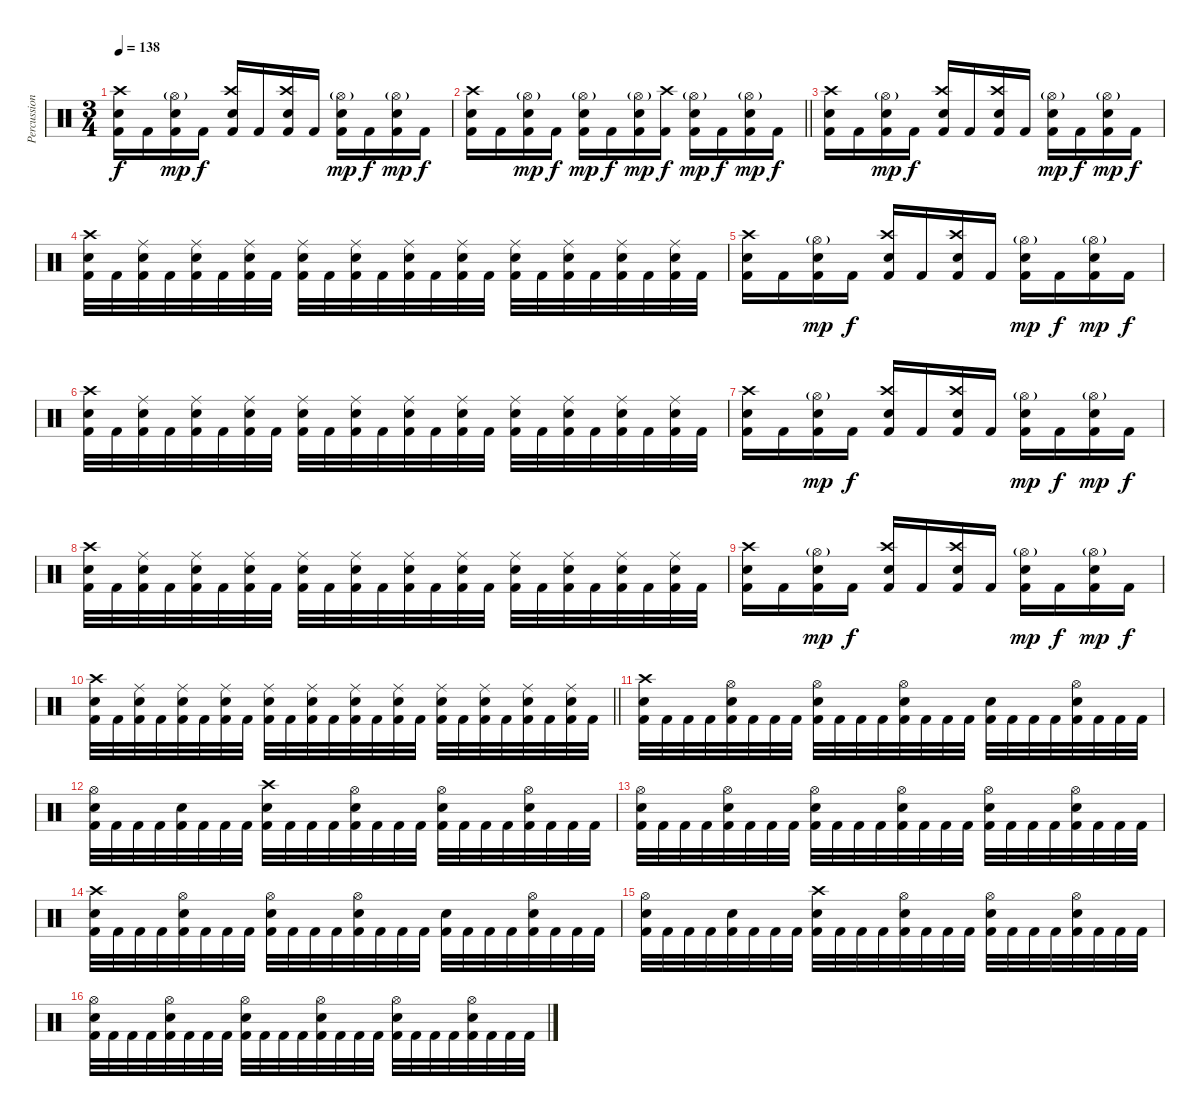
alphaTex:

\track ("Percussion" "Percussion") {instrument percussion}
\staff {score}
\articulation defaults
\ts (3 4)
\section ("" "")
\tempo 138
\clef neutral
\ks c
("Kick (hit) 2" "Crash high (hit)" "Electric Snare (hit)").16{dy f} "Kick (hit) 2".16 ("Kick (hit) 2" "Hi-Hat (open)"{g} "Electric Snare (hit)").16{dy mp} "Kick (hit) 2".16{dy f} ("Kick (hit) 2" "Crash high (hit)" "Electric Snare (hit)").16 "Kick (hit) 2".16 ("Kick (hit) 2" "Crash high (hit)" "Electric Snare (hit)").16 "Kick (hit) 2".16 ("Kick (hit) 2" "Hi-Hat (open)"{g} "Electric Snare (hit)").16{dy mp} "Kick (hit) 2".16{dy f} ("Kick (hit) 2" "Hi-Hat (open)"{g} "Electric Snare (hit)").16{dy mp} "Kick (hit) 2".16{dy f} |
\barLineRight lightlight
("Kick (hit) 2" "Crash high (hit)" "Electric Snare (hit)").16 "Kick (hit) 2".16 ("Kick (hit) 2" "Hi-Hat (open)"{g} "Electric Snare (hit)").16{dy mp} "Kick (hit) 2".16{dy f} ("Kick (hit) 2" "Hi-Hat (open)"{g} "Electric Snare (hit)").16{dy mp} "Kick (hit) 2".16{dy f} ("Kick (hit) 2" "Hi-Hat (open)"{g} "Electric Snare (hit)").16{dy mp} ("Kick (hit) 2" "Crash high (hit)").16{dy f} ("Kick (hit) 2" "Hi-Hat (open)"{g} "Electric Snare (hit)").16{dy mp} "Kick (hit) 2".16{dy f} ("Kick (hit) 2" "Hi-Hat (open)"{g} "Electric Snare (hit)").16{dy mp} "Kick (hit) 2".16{dy f} |
\section ("" "")
("Kick (hit) 2" "Crash high (hit)" "Electric Snare (hit)").16 "Kick (hit) 2".16 ("Kick (hit) 2" "Hi-Hat (open)"{g} "Electric Snare (hit)").16{dy mp} "Kick (hit) 2".16{dy f} ("Kick (hit) 2" "Crash high (hit)" "Electric Snare (hit)").16 "Kick (hit) 2".16 ("Kick (hit) 2" "Crash high (hit)" "Electric Snare (hit)").16 "Kick (hit) 2".16 ("Kick (hit) 2" "Hi-Hat (open)"{g} "Electric Snare (hit)").16{dy mp} "Kick (hit) 2".16{dy f} ("Kick (hit) 2" "Hi-Hat (open)"{g} "Electric Snare (hit)").16{dy mp} "Kick (hit) 2".16{dy f} |
("Kick (hit) 2" "Electric Snare (hit)" "Crash high (hit)").32 "Kick (hit) 2".32 ("Kick (hit) 2" "Electric Snare (hit)" "Ride (middle)").32 "Kick (hit) 2".32 ("Kick (hit) 2" "Electric Snare (hit)" "Ride (middle)").32 "Kick (hit) 2".32 ("Kick (hit) 2" "Electric Snare (hit)" "Ride (middle)").32 "Kick (hit) 2".32 ("Kick (hit) 2" "Electric Snare (hit)" "Ride (middle)").32 "Kick (hit) 2".32 ("Kick (hit) 2" "Electric Snare (hit)" "Ride (middle)").32 "Kick (hit) 2".32 ("Kick (hit) 2" "Electric Snare (hit)" "Ride (middle)").32 "Kick (hit) 2".32 ("Kick (hit) 2" "Electric Snare (hit)" "Ride (middle)").32 "Kick (hit) 2".32 ("Kick (hit) 2" "Electric Snare (hit)" "Ride (middle)").32 "Kick (hit) 2".32 ("Kick (hit) 2" "Electric Snare (hit)" "Ride (middle)").32 "Kick (hit) 2".32 ("Kick (hit) 2" "Electric Snare (hit)" "Ride (middle)").32 "Kick (hit) 2".32 ("Kick (hit) 2" "Electric Snare (hit)" "Ride (middle)").32 "Kick (hit) 2".32 |
("Kick (hit) 2" "Crash high (hit)" "Electric Snare (hit)").16 "Kick (hit) 2".16 ("Kick (hit) 2" "Hi-Hat (open)"{g} "Electric Snare (hit)").16{dy mp} "Kick (hit) 2".16{dy f} ("Kick (hit) 2" "Crash high (hit)" "Electric Snare (hit)").16 "Kick (hit) 2".16 ("Kick (hit) 2" "Crash high (hit)" "Electric Snare (hit)").16 "Kick (hit) 2".16 ("Kick (hit) 2" "Hi-Hat (open)"{g} "Electric Snare (hit)").16{dy mp} "Kick (hit) 2".16{dy f} ("Kick (hit) 2" "Hi-Hat (open)"{g} "Electric Snare (hit)").16{dy mp} "Kick (hit) 2".16{dy f} |
("Kick (hit) 2" "Electric Snare (hit)" "Crash high (hit)").32 "Kick (hit) 2".32 ("Kick (hit) 2" "Electric Snare (hit)" "Ride (middle)").32 "Kick (hit) 2".32 ("Kick (hit) 2" "Electric Snare (hit)" "Ride (middle)").32 "Kick (hit) 2".32 ("Kick (hit) 2" "Electric Snare (hit)" "Ride (middle)").32 "Kick (hit) 2".32 ("Kick (hit) 2" "Electric Snare (hit)" "Ride (middle)").32 "Kick (hit) 2".32 ("Kick (hit) 2" "Electric Snare (hit)" "Ride (middle)").32 "Kick (hit) 2".32 ("Kick (hit) 2" "Electric Snare (hit)" "Ride (middle)").32 "Kick (hit) 2".32 ("Kick (hit) 2" "Electric Snare (hit)" "Ride (middle)").32 "Kick (hit) 2".32 ("Kick (hit) 2" "Electric Snare (hit)" "Ride (middle)").32 "Kick (hit) 2".32 ("Kick (hit) 2" "Electric Snare (hit)" "Ride (middle)").32 "Kick (hit) 2".32 ("Kick (hit) 2" "Electric Snare (hit)" "Ride (middle)").32 "Kick (hit) 2".32 ("Kick (hit) 2" "Electric Snare (hit)" "Ride (middle)").32 "Kick (hit) 2".32 |
("Kick (hit) 2" "Crash high (hit)" "Electric Snare (hit)").16 "Kick (hit) 2".16 ("Kick (hit) 2" "Hi-Hat (open)"{g} "Electric Snare (hit)").16{dy mp} "Kick (hit) 2".16{dy f} ("Kick (hit) 2" "Crash high (hit)" "Electric Snare (hit)").16 "Kick (hit) 2".16 ("Kick (hit) 2" "Crash high (hit)" "Electric Snare (hit)").16 "Kick (hit) 2".16 ("Kick (hit) 2" "Hi-Hat (open)"{g} "Electric Snare (hit)").16{dy mp} "Kick (hit) 2".16{dy f} ("Kick (hit) 2" "Hi-Hat (open)"{g} "Electric Snare (hit)").16{dy mp} "Kick (hit) 2".16{dy f} |
("Kick (hit) 2" "Electric Snare (hit)" "Crash high (hit)").32 "Kick (hit) 2".32 ("Kick (hit) 2" "Electric Snare (hit)" "Ride (middle)").32 "Kick (hit) 2".32 ("Kick (hit) 2" "Electric Snare (hit)" "Ride (middle)").32 "Kick (hit) 2".32 ("Kick (hit) 2" "Electric Snare (hit)" "Ride (middle)").32 "Kick (hit) 2".32 ("Kick (hit) 2" "Electric Snare (hit)" "Ride (middle)").32 "Kick (hit) 2".32 ("Kick (hit) 2" "Electric Snare (hit)" "Ride (middle)").32 "Kick (hit) 2".32 ("Kick (hit) 2" "Electric Snare (hit)" "Ride (middle)").32 "Kick (hit) 2".32 ("Kick (hit) 2" "Electric Snare (hit)" "Ride (middle)").32 "Kick (hit) 2".32 ("Kick (hit) 2" "Electric Snare (hit)" "Ride (middle)").32 "Kick (hit) 2".32 ("Kick (hit) 2" "Electric Snare (hit)" "Ride (middle)").32 "Kick (hit) 2".32 ("Kick (hit) 2" "Electric Snare (hit)" "Ride (middle)").32 "Kick (hit) 2".32 ("Kick (hit) 2" "Electric Snare (hit)" "Ride (middle)").32 "Kick (hit) 2".32 |
("Kick (hit) 2" "Crash high (hit)" "Electric Snare (hit)").16 "Kick (hit) 2".16 ("Kick (hit) 2" "Hi-Hat (open)"{g} "Electric Snare (hit)").16{dy mp} "Kick (hit) 2".16{dy f} ("Kick (hit) 2" "Crash high (hit)" "Electric Snare (hit)").16 "Kick (hit) 2".16 ("Kick (hit) 2" "Crash high (hit)" "Electric Snare (hit)").16 "Kick (hit) 2".16 ("Kick (hit) 2" "Hi-Hat (open)"{g} "Electric Snare (hit)").16{dy mp} "Kick (hit) 2".16{dy f} ("Kick (hit) 2" "Hi-Hat (open)"{g} "Electric Snare (hit)").16{dy mp} "Kick (hit) 2".16{dy f} |
\barLineRight lightlight
("Kick (hit) 2" "Electric Snare (hit)" "Crash high (hit)").32 "Kick (hit) 2".32 ("Kick (hit) 2" "Electric Snare (hit)" "Ride (middle)").32 "Kick (hit) 2".32 ("Kick (hit) 2" "Electric Snare (hit)" "Ride (middle)").32 "Kick (hit) 2".32 ("Kick (hit) 2" "Electric Snare (hit)" "Ride (middle)").32 "Kick (hit) 2".32 ("Kick (hit) 2" "Electric Snare (hit)" "Ride (middle)").32 "Kick (hit) 2".32 ("Kick (hit) 2" "Electric Snare (hit)" "Ride (middle)").32 "Kick (hit) 2".32 ("Kick (hit) 2" "Electric Snare (hit)" "Ride (middle)").32 "Kick (hit) 2".32 ("Kick (hit) 2" "Electric Snare (hit)" "Ride (middle)").32 "Kick (hit) 2".32 ("Kick (hit) 2" "Electric Snare (hit)" "Ride (middle)").32 "Kick (hit) 2".32 ("Kick (hit) 2" "Electric Snare (hit)" "Ride (middle)").32 "Kick (hit) 2".32 ("Kick (hit) 2" "Electric Snare (hit)" "Ride (middle)").32 "Kick (hit) 2".32 ("Kick (hit) 2" "Electric Snare (hit)" "Ride (middle)").32 "Kick (hit) 2".32 |
\section ("" "")
("Kick (hit) 2" "Electric Snare (hit)" "Crash high (hit)").32 "Kick (hit) 2".32 "Kick (hit) 2".32 "Kick (hit) 2".32 ("Kick (hit) 2" "Electric Snare (hit)" "Hi-Hat (open)").32 "Kick (hit) 2".32 "Kick (hit) 2".32 "Kick (hit) 2".32 ("Kick (hit) 2" "Electric Snare (hit)" "Hi-Hat (open)").32 "Kick (hit) 2".32 "Kick (hit) 2".32 "Kick (hit) 2".32 ("Kick (hit) 2" "Electric Snare (hit)" "Hi-Hat (open)").32 "Kick (hit) 2".32 "Kick (hit) 2".32 "Kick (hit) 2".32 ("Kick (hit) 2" "Electric Snare (hit)").32 "Kick (hit) 2".32 "Kick (hit) 2".32 "Kick (hit) 2".32 ("Kick (hit) 2" "Electric Snare (hit)" "Hi-Hat (open)").32 "Kick (hit) 2".32 "Kick (hit) 2".32 "Kick (hit) 2".32 |
("Kick (hit) 2" "Electric Snare (hit)" "Hi-Hat (open)").32 "Kick (hit) 2".32 "Kick (hit) 2".32 "Kick (hit) 2".32 ("Kick (hit) 2" "Electric Snare (hit)").32 "Kick (hit) 2".32 "Kick (hit) 2".32 "Kick (hit) 2".32 ("Kick (hit) 2" "Electric Snare (hit)" "Crash high (hit)").32 "Kick (hit) 2".32 "Kick (hit) 2".32 "Kick (hit) 2".32 ("Kick (hit) 2" "Electric Snare (hit)" "Hi-Hat (open)").32 "Kick (hit) 2".32 "Kick (hit) 2".32 "Kick (hit) 2".32 ("Kick (hit) 2" "Electric Snare (hit)" "Hi-Hat (open)").32 "Kick (hit) 2".32 "Kick (hit) 2".32 "Kick (hit) 2".32 ("Kick (hit) 2" "Electric Snare (hit)" "Hi-Hat (open)").32 "Kick (hit) 2".32 "Kick (hit) 2".32 "Kick (hit) 2".32 |
("Kick (hit) 2" "Electric Snare (hit)" "Hi-Hat (open)").32 "Kick (hit) 2".32 "Kick (hit) 2".32 "Kick (hit) 2".32 ("Kick (hit) 2" "Electric Snare (hit)" "Hi-Hat (open)").32 "Kick (hit) 2".32 "Kick (hit) 2".32 "Kick (hit) 2".32 ("Kick (hit) 2" "Electric Snare (hit)" "Hi-Hat (open)").32 "Kick (hit) 2".32 "Kick (hit) 2".32 "Kick (hit) 2".32 ("Kick (hit) 2" "Electric Snare (hit)" "Hi-Hat (open)").32 "Kick (hit) 2".32 "Kick (hit) 2".32 "Kick (hit) 2".32 ("Kick (hit) 2" "Electric Snare (hit)" "Hi-Hat (open)").32 "Kick (hit) 2".32 "Kick (hit) 2".32 "Kick (hit) 2".32 ("Kick (hit) 2" "Electric Snare (hit)" "Hi-Hat (open)").32 "Kick (hit) 2".32 "Kick (hit) 2".32 "Kick (hit) 2".32 |
("Kick (hit) 2" "Electric Snare (hit)" "Crash high (hit)").32 "Kick (hit) 2".32 "Kick (hit) 2".32 "Kick (hit) 2".32 ("Kick (hit) 2" "Electric Snare (hit)" "Hi-Hat (open)").32 "Kick (hit) 2".32 "Kick (hit) 2".32 "Kick (hit) 2".32 ("Kick (hit) 2" "Electric Snare (hit)" "Hi-Hat (open)").32 "Kick (hit) 2".32 "Kick (hit) 2".32 "Kick (hit) 2".32 ("Kick (hit) 2" "Electric Snare (hit)" "Hi-Hat (open)").32 "Kick (hit) 2".32 "Kick (hit) 2".32 "Kick (hit) 2".32 ("Kick (hit) 2" "Electric Snare (hit)").32 "Kick (hit) 2".32 "Kick (hit) 2".32 "Kick (hit) 2".32 ("Kick (hit) 2" "Electric Snare (hit)" "Hi-Hat (open)").32 "Kick (hit) 2".32 "Kick (hit) 2".32 "Kick (hit) 2".32 |
("Kick (hit) 2" "Electric Snare (hit)" "Hi-Hat (open)").32 "Kick (hit) 2".32 "Kick (hit) 2".32 "Kick (hit) 2".32 ("Kick (hit) 2" "Electric Snare (hit)").32 "Kick (hit) 2".32 "Kick (hit) 2".32 "Kick (hit) 2".32 ("Kick (hit) 2" "Electric Snare (hit)" "Crash high (hit)").32 "Kick (hit) 2".32 "Kick (hit) 2".32 "Kick (hit) 2".32 ("Kick (hit) 2" "Electric Snare (hit)" "Hi-Hat (open)").32 "Kick (hit) 2".32 "Kick (hit) 2".32 "Kick (hit) 2".32 ("Kick (hit) 2" "Electric Snare (hit)" "Hi-Hat (open)").32 "Kick (hit) 2".32 "Kick (hit) 2".32 "Kick (hit) 2".32 ("Kick (hit) 2" "Electric Snare (hit)" "Hi-Hat (open)").32 "Kick (hit) 2".32 "Kick (hit) 2".32 "Kick (hit) 2".32 |
("Kick (hit) 2" "Electric Snare (hit)" "Hi-Hat (open)").32 "Kick (hit) 2".32 "Kick (hit) 2".32 "Kick (hit) 2".32 ("Kick (hit) 2" "Electric Snare (hit)" "Hi-Hat (open)").32 "Kick (hit) 2".32 "Kick (hit) 2".32 "Kick (hit) 2".32 ("Kick (hit) 2" "Electric Snare (hit)" "Hi-Hat (open)").32 "Kick (hit) 2".32 "Kick (hit) 2".32 "Kick (hit) 2".32 ("Kick (hit) 2" "Electric Snare (hit)" "Hi-Hat (open)").32 "Kick (hit) 2".32 "Kick (hit) 2".32 "Kick (hit) 2".32 ("Kick (hit) 2" "Electric Snare (hit)" "Hi-Hat (open)").32 "Kick (hit) 2".32 "Kick (hit) 2".32 "Kick (hit) 2".32 ("Kick (hit) 2" "Electric Snare (hit)" "Hi-Hat (open)").32 "Kick (hit) 2".32 "Kick (hit) 2".32 "Kick (hit) 2".32
